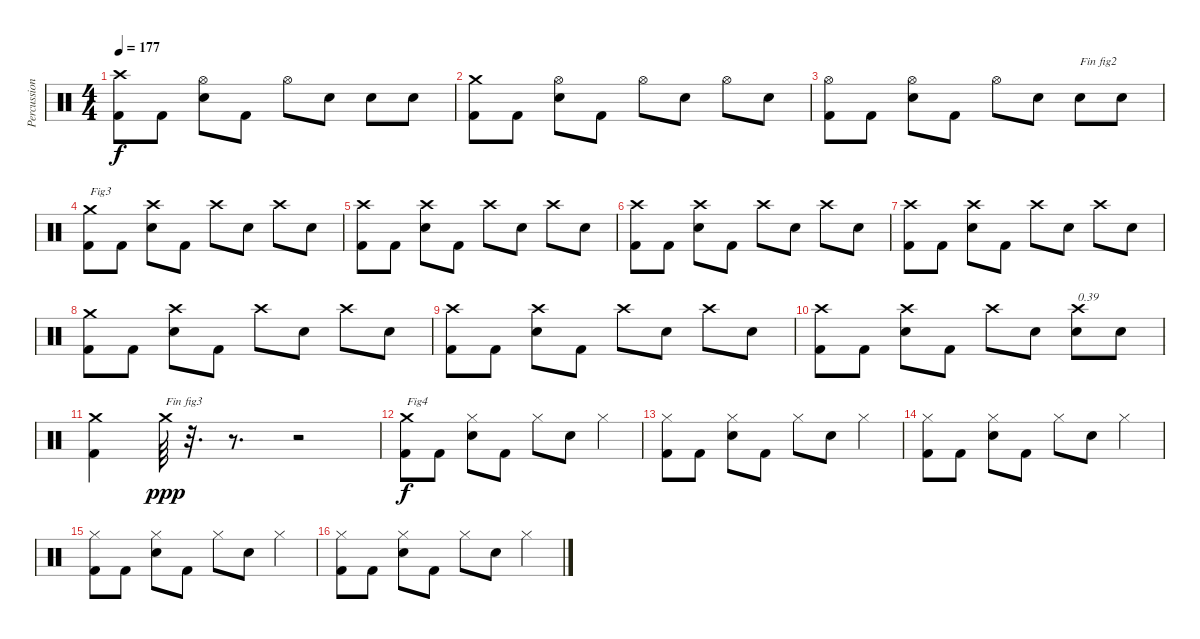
\track ("Percussions" "Percussion") {instrument percussion}
\staff {score}
\articulation defaults
\ts (4 4)
\tempo 177
\clef neutral
\ks c
("Kick (hit) 2" "Crash high (hit)").8{dy f} "Kick (hit) 2".8 ("Electric Snare (hit)" "Hi-Hat (open)").8 "Kick (hit) 2".8 "Hi-Hat (open)".8 "Electric Snare (hit)".8 "Electric Snare (hit)".8 "Electric Snare (hit)".8 |
("Kick (hit) 2" "Crash medium (hit)").8 "Kick (hit) 2".8 ("Electric Snare (hit)" "Hi-Hat (open)").8 "Kick (hit) 2".8 "Hi-Hat (open)".8 "Electric Snare (hit)".8 "Hi-Hat (open)".8 "Electric Snare (hit)".8 |
("Kick (hit) 2" "Hi-Hat (open)").8 "Kick (hit) 2".8 ("Electric Snare (hit)" "Hi-Hat (open)").8 "Kick (hit) 2".8 "Hi-Hat (open)".8 "Electric Snare (hit)".8 "Electric Snare (hit)".8{txt "Fin fig2"} "Electric Snare (hit)".8 |
("Kick (hit) 2" "Crash medium (hit)").8{txt "Fig3"} "Kick (hit) 2".8 ("Electric Snare (hit)" "Crash high (hit)").8 "Kick (hit) 2".8 "Crash high (hit)".8 "Electric Snare (hit)".8 "Crash high (hit)".8 "Electric Snare (hit)".8 |
("Kick (hit) 2" "Crash high (hit)").8 "Kick (hit) 2".8 ("Electric Snare (hit)" "Crash high (hit)").8 "Kick (hit) 2".8 "Crash high (hit)".8 "Electric Snare (hit)".8 "Crash high (hit)".8 "Electric Snare (hit)".8 |
("Kick (hit) 2" "Crash high (hit)").8 "Kick (hit) 2".8 ("Electric Snare (hit)" "Crash high (hit)").8 "Kick (hit) 2".8 "Crash high (hit)".8 "Electric Snare (hit)".8 "Crash high (hit)".8 "Electric Snare (hit)".8 |
("Kick (hit) 2" "Crash high (hit)").8 "Kick (hit) 2".8 ("Electric Snare (hit)" "Crash high (hit)").8 "Kick (hit) 2".8 "Crash high (hit)".8 "Electric Snare (hit)".8 "Crash high (hit)".8 "Electric Snare (hit)".8 |
("Kick (hit) 2" "Crash medium (hit)").8 "Kick (hit) 2".8 ("Electric Snare (hit)" "Crash high (hit)").8 "Kick (hit) 2".8 "Crash high (hit)".8 "Electric Snare (hit)".8 "Crash high (hit)".8 "Electric Snare (hit)".8 |
("Kick (hit) 2" "Crash high (hit)").8 "Kick (hit) 2".8 ("Electric Snare (hit)" "Crash high (hit)").8 "Kick (hit) 2".8 "Crash high (hit)".8 "Electric Snare (hit)".8 "Crash high (hit)".8 "Electric Snare (hit)".8 |
("Kick (hit) 2" "Crash high (hit)").8 "Kick (hit) 2".8 ("Electric Snare (hit)" "Crash high (hit)").8 "Kick (hit) 2".8 "Crash high (hit)".8 "Electric Snare (hit)".8 ("Electric Snare (hit)" "Crash high (hit)").8{txt "0.39"} "Electric Snare (hit)".8 |
("Kick (hit) 2" "Crash medium (hit)").4 "Crash medium (hit)".64{txt "Fin fig3" dy ppp} r.32{d} r.8{d} r.2 |
("Kick (hit) 2" "Crash medium (hit)").8{txt "Fig4" dy f} "Kick (hit) 2".8 ("Electric Snare (hit)" "Hi-Hat (closed)").8 "Kick (hit) 2".8 "Hi-Hat (closed)".8 "Electric Snare (hit)".8 "Hi-Hat (closed)".4 |
("Kick (hit) 2" "Hi-Hat (closed)").8 "Kick (hit) 2".8 ("Electric Snare (hit)" "Hi-Hat (closed)").8 "Kick (hit) 2".8 "Hi-Hat (closed)".8 "Electric Snare (hit)".8 "Hi-Hat (closed)".4 |
("Kick (hit) 2" "Hi-Hat (closed)").8 "Kick (hit) 2".8 ("Electric Snare (hit)" "Hi-Hat (closed)").8 "Kick (hit) 2".8 "Hi-Hat (closed)".8 "Electric Snare (hit)".8 "Hi-Hat (closed)".4 |
("Kick (hit) 2" "Hi-Hat (closed)").8 "Kick (hit) 2".8 ("Electric Snare (hit)" "Hi-Hat (closed)").8 "Kick (hit) 2".8 "Hi-Hat (closed)".8 "Electric Snare (hit)".8 "Hi-Hat (closed)".4 |
("Kick (hit) 2" "Hi-Hat (closed)").8 "Kick (hit) 2".8 ("Electric Snare (hit)" "Hi-Hat (closed)").8 "Kick (hit) 2".8 "Hi-Hat (closed)".8 "Electric Snare (hit)".8 "Hi-Hat (closed)".4
